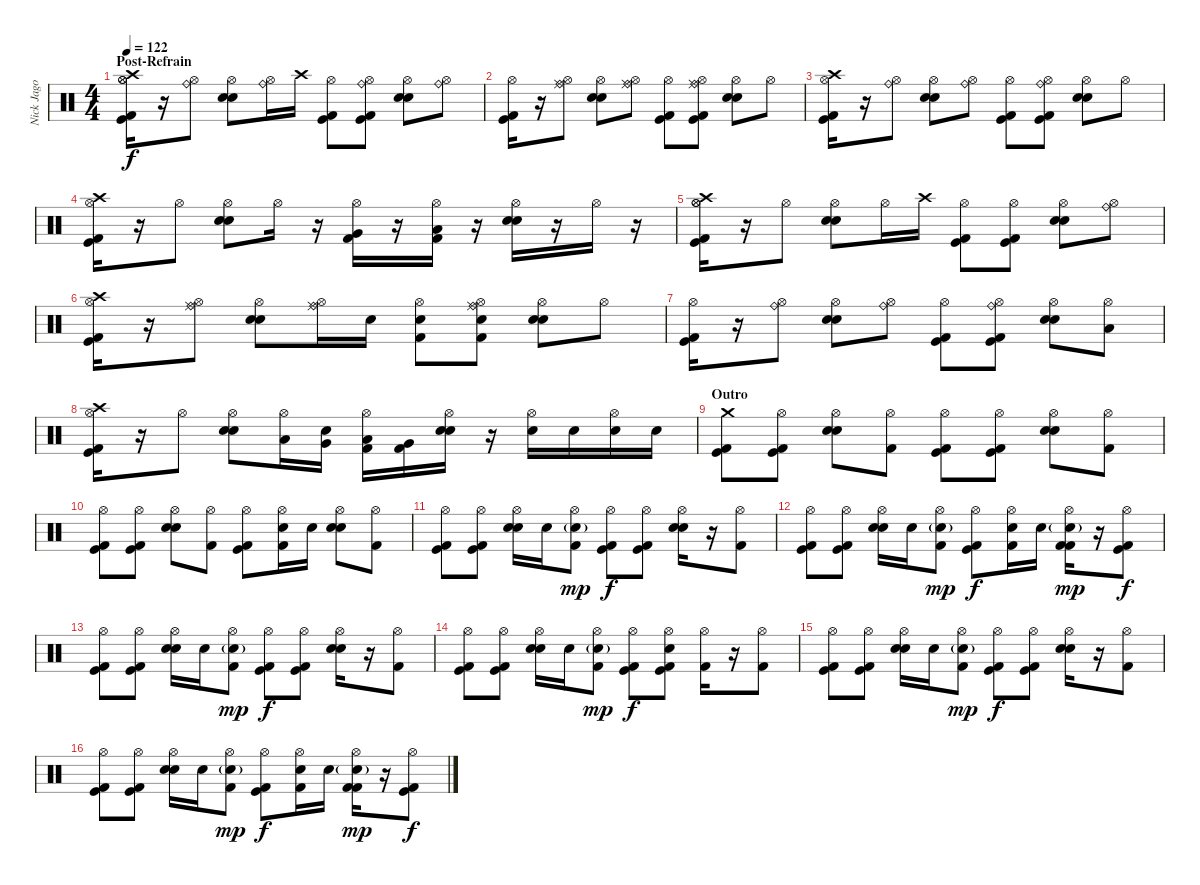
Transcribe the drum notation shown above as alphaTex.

\track ("Nick Jago - Drums" "Nick Jago ") {instrument percussion}
\staff {score}
\articulation defaults
\ts (4 4)
\section ("" "Post-Refrain")
\tempo 122
\clef neutral
\ks c
("Hi-Hat (open)" "Hi-Hat (open)" "Crash high (hit)" "Kick (hit)" "Kick (hit) 2").16{dy f} r.16 ("Hi-Hat (open)" "Ride (bell)").8 ("Hi-Hat (open)" "Snare (hit) 2" "Electric Snare (hit)").8 ("Hi-Hat (open)" "Ride (bell)").16 "Crash high (hit)".16 ("Hi-Hat (open)" "Kick (hit)" "Kick (hit) 2").8 ("Hi-Hat (open)" "Ride (bell)" "Kick (hit)" "Kick (hit) 2").8 ("Hi-Hat (open)" "Snare (hit) 2" "Electric Snare (hit)").8 ("Hi-Hat (open)" "Ride (bell)").8 |
("Hi-Hat (open)" "Kick (hit)" "Kick (hit) 2").16 r.16 ("Hi-Hat (open)" "Ride (bell)" "Ride (middle)").8 ("Hi-Hat (open)" "Snare (hit) 2" "Electric Snare (hit)").8 ("Hi-Hat (open)" "Ride (middle)" "Ride (bell)").8 ("Hi-Hat (open)" "Kick (hit)" "Kick (hit) 2").8 ("Hi-Hat (open)" "Ride (middle)" "Ride (bell)" "Kick (hit)" "Kick (hit) 2").8 ("Hi-Hat (open)" "Snare (hit) 2" "Electric Snare (hit)").8 "Hi-Hat (open)".8 |
("Hi-Hat (open)" "Crash high (hit)" "Kick (hit)" "Kick (hit) 2").16 r.16 ("Hi-Hat (open)" "Ride (bell)").8 ("Hi-Hat (open)" "Snare (hit) 2" "Electric Snare (hit)").8 ("Hi-Hat (open)" "Ride (bell)").8 ("Hi-Hat (open)" "Kick (hit)" "Kick (hit) 2").8 ("Hi-Hat (open)" "Ride (bell)" "Kick (hit)" "Kick (hit) 2").8 ("Hi-Hat (open)" "Snare (hit) 2" "Electric Snare (hit)").8 "Hi-Hat (open)".8 |
("Hi-Hat (open)" "Crash high (hit)" "Kick (hit)" "Kick (hit) 2").16 r.16 "Hi-Hat (open)".8 ("Hi-Hat (open)" "Snare (hit) 2" "Electric Snare (hit)").8 "Hi-Hat (open)".16 r.16 ("Hi-Hat (open)" "Kick (hit) 2" "Very Low Tom (hit)").16 r.16 ("Hi-Hat (open)" "Kick (hit) 2" "Low Floor Tom (hit)").16 r.16 ("Hi-Hat (open)" "Snare (hit) 2" "Electric Snare (hit)").16 r.16 "Hi-Hat (open)".16 r.16 |
("Hi-Hat (open)" "Hi-Hat (open)" "Crash high (hit)" "Kick (hit)" "Kick (hit) 2").16 r.16 "Hi-Hat (open)".8 ("Hi-Hat (open)" "Snare (hit) 2" "Electric Snare (hit)").8 "Hi-Hat (open)".16 "Crash high (hit)".16 ("Hi-Hat (open)" "Kick (hit)" "Kick (hit) 2").8 ("Hi-Hat (open)" "Kick (hit)" "Kick (hit) 2").8 ("Hi-Hat (open)" "Snare (hit) 2" "Electric Snare (hit)").8 ("Hi-Hat (open)" "Ride (bell)").8 |
("Hi-Hat (open)" "Crash high (hit)" "Kick (hit)" "Kick (hit) 2").16 r.16 ("Hi-Hat (open)" "Ride (bell)" "Ride (middle)").8 ("Hi-Hat (open)" "Snare (hit) 2" "Electric Snare (hit)").8 ("Hi-Hat (open)" "Ride (middle)" "Ride (bell)").16 "Electric Snare (hit)".16 ("Hi-Hat (open)" "Electric Snare (hit)" "Kick (hit) 2").8 ("Hi-Hat (open)" "Ride (middle)" "Ride (bell)" "Electric Snare (hit)" "Kick (hit) 2").8 ("Hi-Hat (open)" "Snare (hit) 2" "Electric Snare (hit)").8 "Hi-Hat (open)".8 |
("Hi-Hat (open)" "Kick (hit)" "Kick (hit) 2").16 r.16 ("Hi-Hat (open)" "Ride (bell)").8 ("Hi-Hat (open)" "Snare (hit) 2" "Electric Snare (hit)").8 ("Hi-Hat (open)" "Ride (bell)").8 ("Hi-Hat (open)" "Kick (hit)" "Kick (hit) 2").8 ("Hi-Hat (open)" "Ride (bell)" "Kick (hit)" "Kick (hit) 2").8 ("Hi-Hat (open)" "Snare (hit) 2" "Electric Snare (hit)").8 ("Hi-Hat (open)" "Low Floor Tom (hit)").8 |
("Hi-Hat (open)" "Crash high (hit)" "Kick (hit)" "Kick (hit) 2").16 r.16 "Hi-Hat (open)".8 ("Hi-Hat (open)" "Snare (hit) 2" "Electric Snare (hit)").8 ("Hi-Hat (open)" "Low Tom (hit)").16 ("Electric Snare (hit)" "Very Low Tom (hit)").16 ("Hi-Hat (open)" "Low Floor Tom (hit)" "Kick (hit) 2").16 ("Kick (hit) 2" "Very Low Tom (hit)").16 ("Hi-Hat (open)" "Electric Snare (hit)" "Snare (hit) 2").16 r.16 ("Hi-Hat (open)" "Snare (hit) 2").16 "Snare (hit) 2".16 ("Hi-Hat (open)" "Snare (hit) 2").16 "Snare (hit) 2".16 |
\section ("" "Outro")
("Crash medium (hit)" "Kick (hit)" "Kick (hit) 2").8 ("Hi-Hat (open)" "Kick (hit)" "Kick (hit) 2").8 ("Hi-Hat (open)" "Electric Snare (hit)" "Snare (hit) 2").8 ("Hi-Hat (open)" "Kick (hit) 2").8 ("Hi-Hat (open)" "Kick (hit)" "Kick (hit) 2").8 ("Hi-Hat (open)" "Kick (hit)" "Kick (hit) 2").8 ("Hi-Hat (open)" "Electric Snare (hit)" "Snare (hit) 2").8 ("Hi-Hat (open)" "Kick (hit) 2").8 |
("Hi-Hat (open)" "Kick (hit)" "Kick (hit) 2").8 ("Hi-Hat (open)" "Kick (hit)" "Kick (hit) 2").8 ("Hi-Hat (open)" "Electric Snare (hit)" "Snare (hit) 2").8 ("Hi-Hat (open)" "Kick (hit) 2").8 ("Hi-Hat (open)" "Kick (hit)" "Kick (hit) 2").8 ("Hi-Hat (open)" "Electric Snare (hit)" "Kick (hit) 2").16 "Electric Snare (hit)".16 ("Hi-Hat (open)" "Electric Snare (hit)" "Snare (hit) 2").8 ("Hi-Hat (open)" "Kick (hit) 2").8 |
("Hi-Hat (open)" "Kick (hit)" "Kick (hit) 2").8 ("Hi-Hat (open)" "Kick (hit)" "Kick (hit) 2").8 ("Hi-Hat (open)" "Electric Snare (hit)" "Snare (hit) 2").16 "Electric Snare (hit)".16 ("Hi-Hat (open)" "Electric Snare (hit)"{g} "Kick (hit) 2").8{dy mp} ("Hi-Hat (open)" "Kick (hit)" "Kick (hit) 2").8{dy f} ("Hi-Hat (open)" "Kick (hit)" "Kick (hit) 2").8 ("Hi-Hat (open)" "Electric Snare (hit)" "Snare (hit) 2").16 r.16 ("Hi-Hat (open)" "Kick (hit) 2").8 |
("Hi-Hat (open)" "Kick (hit)" "Kick (hit) 2").8 ("Hi-Hat (open)" "Kick (hit)" "Kick (hit) 2").8 ("Hi-Hat (open)" "Electric Snare (hit)" "Snare (hit) 2").16 "Electric Snare (hit)".16 ("Hi-Hat (open)" "Electric Snare (hit)"{g} "Kick (hit) 2").8{dy mp} ("Hi-Hat (open)" "Kick (hit)" "Kick (hit) 2").8{dy f} ("Hi-Hat (open)" "Electric Snare (hit)" "Kick (hit) 2").16 "Electric Snare (hit)".16 ("Hi-Hat (open)" "Electric Snare (hit)"{g} "Kick (hit) 2" "Kick (hit) 2").16{dy mp} r.16 ("Hi-Hat (open)" "Kick (hit)" "Kick (hit) 2").8{dy f} |
("Hi-Hat (open)" "Kick (hit)" "Kick (hit) 2").8 ("Hi-Hat (open)" "Kick (hit)" "Kick (hit) 2").8 ("Hi-Hat (open)" "Electric Snare (hit)" "Snare (hit) 2").16 "Electric Snare (hit)".16 ("Hi-Hat (open)" "Electric Snare (hit)"{g} "Kick (hit) 2").8{dy mp} ("Hi-Hat (open)" "Kick (hit)" "Kick (hit) 2").8{dy f} ("Hi-Hat (open)" "Kick (hit)" "Kick (hit) 2").8 ("Hi-Hat (open)" "Electric Snare (hit)" "Snare (hit) 2").16 r.16 ("Hi-Hat (open)" "Kick (hit) 2").8 |
("Hi-Hat (open)" "Kick (hit)" "Kick (hit) 2").8 ("Hi-Hat (open)" "Kick (hit)" "Kick (hit) 2").8 ("Hi-Hat (open)" "Electric Snare (hit)" "Snare (hit) 2").16 "Electric Snare (hit)".16 ("Hi-Hat (open)" "Electric Snare (hit)"{g} "Kick (hit) 2").8{dy mp} ("Hi-Hat (open)" "Kick (hit)" "Kick (hit) 2").8{dy f} ("Hi-Hat (open)" "Electric Snare (hit)" "Kick (hit)" "Kick (hit) 2").8 ("Hi-Hat (open)" "Kick (hit) 2").16 r.16 ("Hi-Hat (open)" "Kick (hit) 2").8 |
("Hi-Hat (open)" "Kick (hit)" "Kick (hit) 2").8 ("Hi-Hat (open)" "Kick (hit)" "Kick (hit) 2").8 ("Hi-Hat (open)" "Electric Snare (hit)" "Snare (hit) 2").16 "Electric Snare (hit)".16 ("Hi-Hat (open)" "Electric Snare (hit)"{g} "Kick (hit) 2").8{dy mp} ("Hi-Hat (open)" "Kick (hit)" "Kick (hit) 2").8{dy f} ("Hi-Hat (open)" "Kick (hit)" "Kick (hit) 2").8 ("Hi-Hat (open)" "Electric Snare (hit)" "Snare (hit) 2").16 r.16 ("Hi-Hat (open)" "Kick (hit) 2").8 |
("Hi-Hat (open)" "Kick (hit)" "Kick (hit) 2").8 ("Hi-Hat (open)" "Kick (hit)" "Kick (hit) 2").8 ("Hi-Hat (open)" "Electric Snare (hit)" "Snare (hit) 2").16 "Electric Snare (hit)".16 ("Hi-Hat (open)" "Electric Snare (hit)"{g} "Kick (hit) 2").8{dy mp} ("Hi-Hat (open)" "Kick (hit)" "Kick (hit) 2").8{dy f} ("Hi-Hat (open)" "Electric Snare (hit)" "Kick (hit) 2").16 "Electric Snare (hit)".16 ("Hi-Hat (open)" "Electric Snare (hit)"{g} "Kick (hit) 2" "Kick (hit) 2").16{dy mp} r.16 ("Hi-Hat (open)" "Kick (hit)" "Kick (hit) 2").8{dy f}
